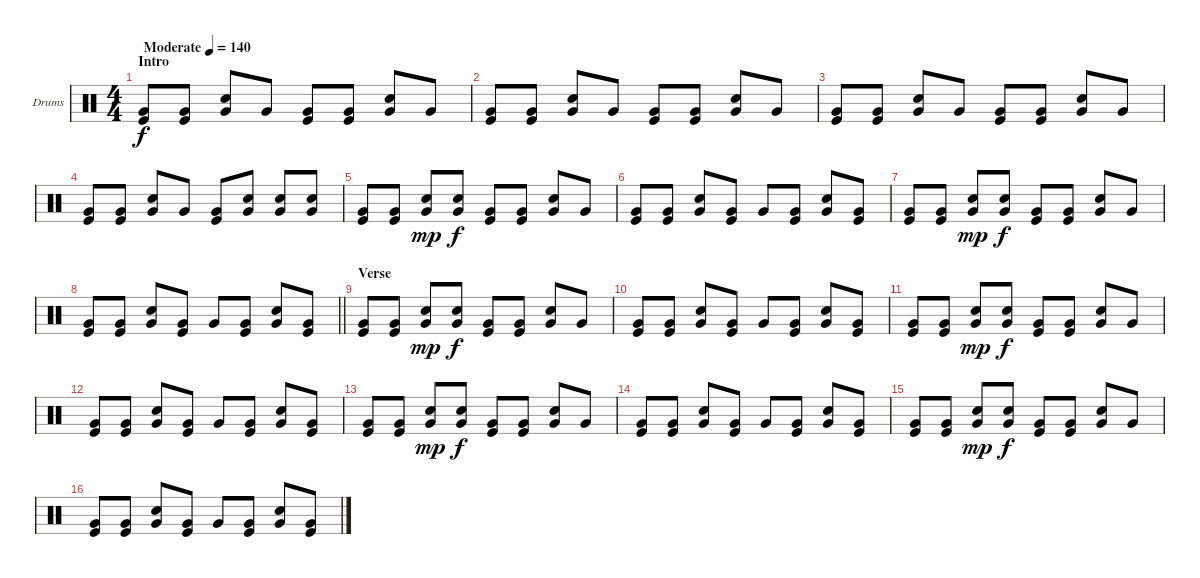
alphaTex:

\bracketExtendMode groupsimilarinstruments
\firstSystemTrackNameOrientation horizontal
\otherSystemsTrackNameOrientation horizontal
\track ("Drumkit" "Drums") {instrument percussion}
\staff {score}
\articulation defaults
\ts (4 4)
\beaming (8 2 2 2 2)
\section ("" "Intro")
\tempo (140 "Moderate")
\clef neutral
\ks c
("Very Low Tom (hit)" "Kick (hit)").8{dy f} ("Very Low Tom (hit)" "Kick (hit)").8 ("Very Low Tom (hit)" "Snare (hit) 2").8 "Very Low Tom (hit)".8 ("Very Low Tom (hit)" "Kick (hit)").8 ("Very Low Tom (hit)" "Kick (hit)").8 ("Very Low Tom (hit)" "Snare (hit) 2").8 "Very Low Tom (hit)".8 |
("Very Low Tom (hit)" "Kick (hit)").8 ("Very Low Tom (hit)" "Kick (hit)").8 ("Very Low Tom (hit)" "Snare (hit) 2").8 "Very Low Tom (hit)".8 ("Very Low Tom (hit)" "Kick (hit)").8 ("Very Low Tom (hit)" "Kick (hit)").8 ("Very Low Tom (hit)" "Snare (hit) 2").8 "Very Low Tom (hit)".8 |
("Very Low Tom (hit)" "Kick (hit)").8 ("Very Low Tom (hit)" "Kick (hit)").8 ("Very Low Tom (hit)" "Snare (hit) 2").8 "Very Low Tom (hit)".8 ("Very Low Tom (hit)" "Kick (hit)").8 ("Very Low Tom (hit)" "Kick (hit)").8 ("Very Low Tom (hit)" "Snare (hit) 2").8 "Very Low Tom (hit)".8 |
("Very Low Tom (hit)" "Kick (hit)").8 ("Very Low Tom (hit)" "Kick (hit)").8 ("Very Low Tom (hit)" "Snare (hit) 2").8 "Very Low Tom (hit)".8 ("Very Low Tom (hit)" "Kick (hit)").8 ("Very Low Tom (hit)" "Snare (hit) 2").8 ("Very Low Tom (hit)" "Snare (hit) 2").8 ("Very Low Tom (hit)" "Snare (hit) 2").8 |
("Very Low Tom (hit)" "Kick (hit)").8 ("Very Low Tom (hit)" "Kick (hit)").8 ("Very Low Tom (hit)" "Snare (hit) 2").8{dy mp} ("Very Low Tom (hit)" "Snare (hit) 2").8{dy f} ("Very Low Tom (hit)" "Kick (hit)").8 ("Very Low Tom (hit)" "Kick (hit)").8 ("Very Low Tom (hit)" "Snare (hit) 2").8 "Very Low Tom (hit)".8 |
("Very Low Tom (hit)" "Kick (hit)").8 ("Very Low Tom (hit)" "Kick (hit)").8 ("Very Low Tom (hit)" "Snare (hit) 2").8 ("Very Low Tom (hit)" "Kick (hit)").8 "Very Low Tom (hit)".8 ("Very Low Tom (hit)" "Kick (hit)").8 ("Very Low Tom (hit)" "Snare (hit) 2").8 ("Very Low Tom (hit)" "Kick (hit)").8 |
("Very Low Tom (hit)" "Kick (hit)").8 ("Very Low Tom (hit)" "Kick (hit)").8 ("Very Low Tom (hit)" "Snare (hit) 2").8{dy mp} ("Very Low Tom (hit)" "Snare (hit) 2").8{dy f} ("Very Low Tom (hit)" "Kick (hit)").8 ("Very Low Tom (hit)" "Kick (hit)").8 ("Very Low Tom (hit)" "Snare (hit) 2").8 "Very Low Tom (hit)".8 |
\barLineRight lightlight
("Very Low Tom (hit)" "Kick (hit)").8 ("Very Low Tom (hit)" "Kick (hit)").8 ("Very Low Tom (hit)" "Snare (hit) 2").8 ("Very Low Tom (hit)" "Kick (hit)").8 "Very Low Tom (hit)".8 ("Very Low Tom (hit)" "Kick (hit)").8 ("Very Low Tom (hit)" "Snare (hit) 2").8 ("Very Low Tom (hit)" "Kick (hit)").8 |
\section ("" "Verse")
("Very Low Tom (hit)" "Kick (hit)").8 ("Very Low Tom (hit)" "Kick (hit)").8 ("Very Low Tom (hit)" "Snare (hit) 2").8{dy mp} ("Very Low Tom (hit)" "Snare (hit) 2").8{dy f} ("Very Low Tom (hit)" "Kick (hit)").8 ("Very Low Tom (hit)" "Kick (hit)").8 ("Very Low Tom (hit)" "Snare (hit) 2").8 "Very Low Tom (hit)".8 |
("Very Low Tom (hit)" "Kick (hit)").8 ("Very Low Tom (hit)" "Kick (hit)").8 ("Very Low Tom (hit)" "Snare (hit) 2").8 ("Very Low Tom (hit)" "Kick (hit)").8 "Very Low Tom (hit)".8 ("Very Low Tom (hit)" "Kick (hit)").8 ("Very Low Tom (hit)" "Snare (hit) 2").8 ("Very Low Tom (hit)" "Kick (hit)").8 |
("Very Low Tom (hit)" "Kick (hit)").8 ("Very Low Tom (hit)" "Kick (hit)").8 ("Very Low Tom (hit)" "Snare (hit) 2").8{dy mp} ("Very Low Tom (hit)" "Snare (hit) 2").8{dy f} ("Very Low Tom (hit)" "Kick (hit)").8 ("Very Low Tom (hit)" "Kick (hit)").8 ("Very Low Tom (hit)" "Snare (hit) 2").8 "Very Low Tom (hit)".8 |
("Very Low Tom (hit)" "Kick (hit)").8 ("Very Low Tom (hit)" "Kick (hit)").8 ("Very Low Tom (hit)" "Snare (hit) 2").8 ("Very Low Tom (hit)" "Kick (hit)").8 "Very Low Tom (hit)".8 ("Very Low Tom (hit)" "Kick (hit)").8 ("Very Low Tom (hit)" "Snare (hit) 2").8 ("Very Low Tom (hit)" "Kick (hit)").8 |
("Very Low Tom (hit)" "Kick (hit)").8 ("Very Low Tom (hit)" "Kick (hit)").8 ("Very Low Tom (hit)" "Snare (hit) 2").8{dy mp} ("Very Low Tom (hit)" "Snare (hit) 2").8{dy f} ("Very Low Tom (hit)" "Kick (hit)").8 ("Very Low Tom (hit)" "Kick (hit)").8 ("Very Low Tom (hit)" "Snare (hit) 2").8 "Very Low Tom (hit)".8 |
("Very Low Tom (hit)" "Kick (hit)").8 ("Very Low Tom (hit)" "Kick (hit)").8 ("Very Low Tom (hit)" "Snare (hit) 2").8 ("Very Low Tom (hit)" "Kick (hit)").8 "Very Low Tom (hit)".8 ("Very Low Tom (hit)" "Kick (hit)").8 ("Very Low Tom (hit)" "Snare (hit) 2").8 ("Very Low Tom (hit)" "Kick (hit)").8 |
("Very Low Tom (hit)" "Kick (hit)").8 ("Very Low Tom (hit)" "Kick (hit)").8 ("Very Low Tom (hit)" "Snare (hit) 2").8{dy mp} ("Very Low Tom (hit)" "Snare (hit) 2").8{dy f} ("Very Low Tom (hit)" "Kick (hit)").8 ("Very Low Tom (hit)" "Kick (hit)").8 ("Very Low Tom (hit)" "Snare (hit) 2").8 "Very Low Tom (hit)".8 |
("Very Low Tom (hit)" "Kick (hit)").8 ("Very Low Tom (hit)" "Kick (hit)").8 ("Very Low Tom (hit)" "Snare (hit) 2").8 ("Very Low Tom (hit)" "Kick (hit)").8 "Very Low Tom (hit)".8 ("Very Low Tom (hit)" "Kick (hit)").8 ("Very Low Tom (hit)" "Snare (hit) 2").8 ("Very Low Tom (hit)" "Kick (hit)").8
